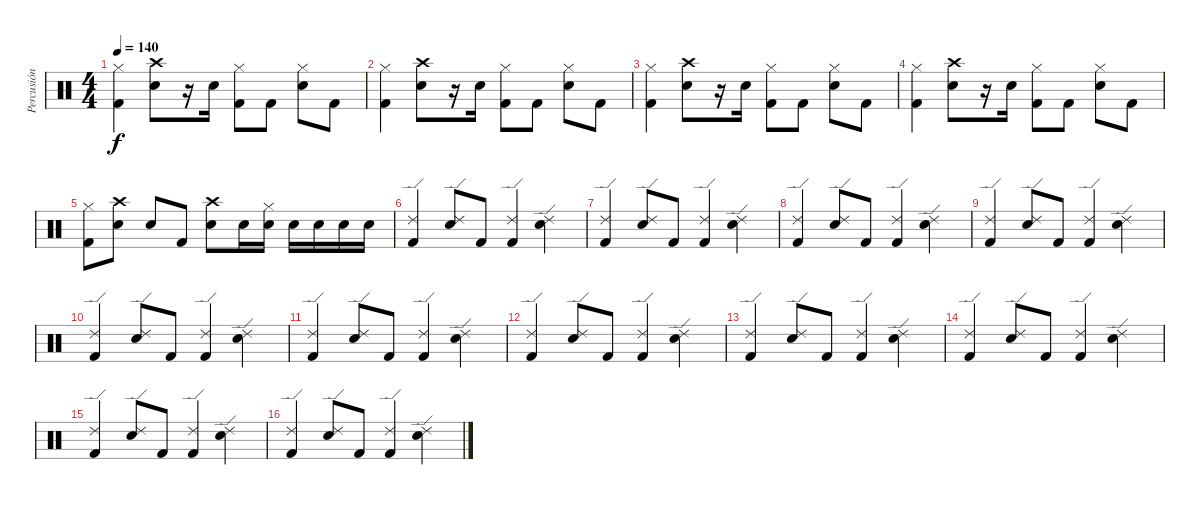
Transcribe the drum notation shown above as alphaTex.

\track ("Percusión" "Percusión") {instrument percussion}
\staff {score}
\articulation defaults
\ts (4 4)
\tempo 140
\clef neutral
\ks c
("Hi-Hat (closed)" "Kick (hit) 2").4{dy f} ("Crash high (hit)" "Snare (hit) 2").8 r.16 "Snare (hit) 2".16 ("Hi-Hat (closed)" "Kick (hit) 2").8 "Kick (hit) 2".8 ("Hi-Hat (closed)" "Snare (hit) 2").8 "Kick (hit) 2".8 |
("Hi-Hat (closed)" "Kick (hit) 2").4 ("Crash high (hit)" "Snare (hit) 2").8 r.16 "Snare (hit) 2".16 ("Hi-Hat (closed)" "Kick (hit) 2").8 "Kick (hit) 2".8 ("Hi-Hat (closed)" "Snare (hit) 2").8 "Kick (hit) 2".8 |
("Hi-Hat (closed)" "Kick (hit) 2").4 ("Crash high (hit)" "Snare (hit) 2").8 r.16 "Snare (hit) 2".16 ("Hi-Hat (closed)" "Kick (hit) 2").8 "Kick (hit) 2".8 ("Hi-Hat (closed)" "Snare (hit) 2").8 "Kick (hit) 2".8 |
("Hi-Hat (closed)" "Kick (hit) 2").4 ("Crash high (hit)" "Snare (hit) 2").8 r.16 "Snare (hit) 2".16 ("Hi-Hat (closed)" "Kick (hit) 2").8 "Kick (hit) 2".8 ("Hi-Hat (closed)" "Snare (hit) 2").8 "Kick (hit) 2".8 |
("Hi-Hat (closed)" "Kick (hit) 2").8 ("Crash high (hit)" "Snare (hit) 2").8 "Snare (hit) 2".8 "Kick (hit) 2".8 ("Crash high (hit)" "Snare (hit) 2").8 "Snare (hit) 2".16 ("Hi-Hat (closed)" "Snare (hit) 2").16 "Snare (hit) 2".16 "Snare (hit) 2".16 "Snare (hit) 2".16 "Snare (hit) 2".16 |
("Ride (edge) 2" "Kick (hit) 2").4 ("Ride (edge) 2" "Snare (hit) 2").8 "Kick (hit) 2".8 ("Ride (edge) 2" "Kick (hit) 2").4 ("Ride (edge) 2" "Snare (hit) 2").4 |
("Ride (edge) 2" "Kick (hit) 2").4 ("Ride (edge) 2" "Snare (hit) 2").8 "Kick (hit) 2".8 ("Ride (edge) 2" "Kick (hit) 2").4 ("Ride (edge) 2" "Snare (hit) 2").4 |
("Ride (edge) 2" "Kick (hit) 2").4 ("Ride (edge) 2" "Snare (hit) 2").8 "Kick (hit) 2".8 ("Ride (edge) 2" "Kick (hit) 2").4 ("Ride (edge) 2" "Snare (hit) 2").4 |
("Ride (edge) 2" "Kick (hit) 2").4 ("Ride (edge) 2" "Snare (hit) 2").8 "Kick (hit) 2".8 ("Ride (edge) 2" "Kick (hit) 2").4 ("Ride (edge) 2" "Snare (hit) 2").4 |
("Ride (edge) 2" "Kick (hit) 2").4 ("Ride (edge) 2" "Snare (hit) 2").8 "Kick (hit) 2".8 ("Ride (edge) 2" "Kick (hit) 2").4 ("Ride (edge) 2" "Snare (hit) 2").4 |
("Ride (edge) 2" "Kick (hit) 2").4 ("Ride (edge) 2" "Snare (hit) 2").8 "Kick (hit) 2".8 ("Ride (edge) 2" "Kick (hit) 2").4 ("Ride (edge) 2" "Snare (hit) 2").4 |
("Ride (edge) 2" "Kick (hit) 2").4 ("Ride (edge) 2" "Snare (hit) 2").8 "Kick (hit) 2".8 ("Ride (edge) 2" "Kick (hit) 2").4 ("Ride (edge) 2" "Snare (hit) 2").4 |
("Ride (edge) 2" "Kick (hit) 2").4 ("Ride (edge) 2" "Snare (hit) 2").8 "Kick (hit) 2".8 ("Ride (edge) 2" "Kick (hit) 2").4 ("Ride (edge) 2" "Snare (hit) 2").4 |
("Ride (edge) 2" "Kick (hit) 2").4 ("Ride (edge) 2" "Snare (hit) 2").8 "Kick (hit) 2".8 ("Ride (edge) 2" "Kick (hit) 2").4 ("Ride (edge) 2" "Snare (hit) 2").4 |
("Ride (edge) 2" "Kick (hit) 2").4 ("Ride (edge) 2" "Snare (hit) 2").8 "Kick (hit) 2".8 ("Ride (edge) 2" "Kick (hit) 2").4 ("Ride (edge) 2" "Snare (hit) 2").4 |
("Ride (edge) 2" "Kick (hit) 2").4 ("Ride (edge) 2" "Snare (hit) 2").8 "Kick (hit) 2".8 ("Ride (edge) 2" "Kick (hit) 2").4 ("Ride (edge) 2" "Snare (hit) 2").4
